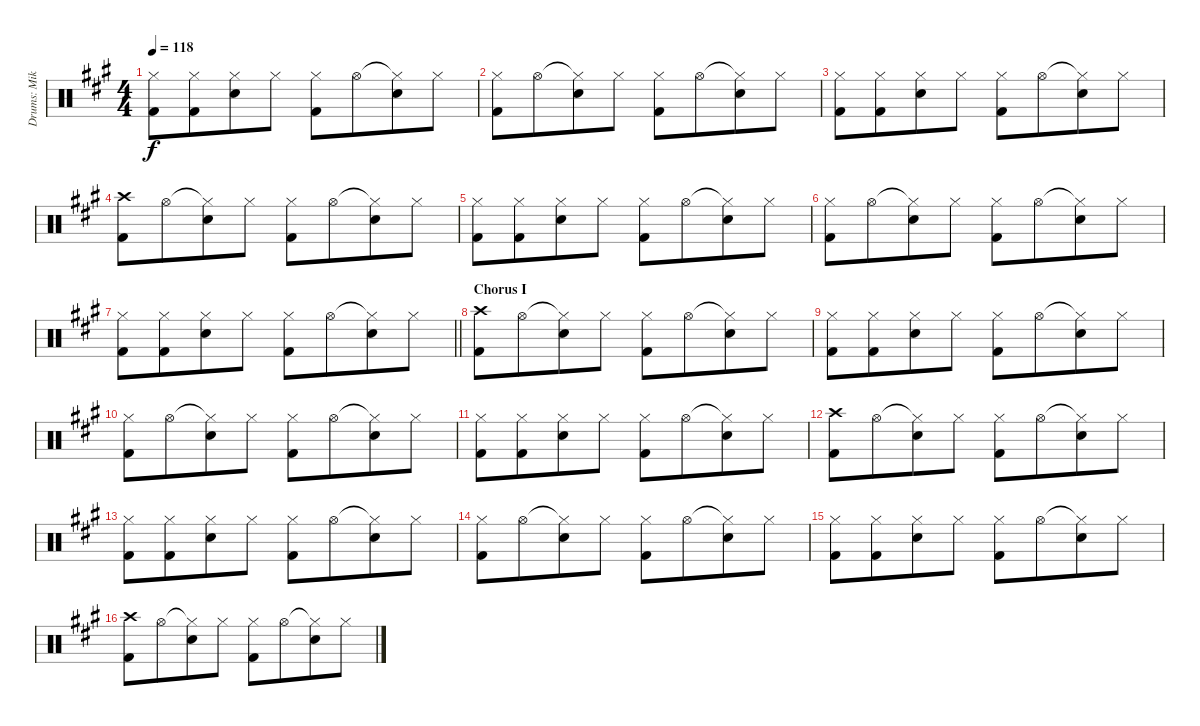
\track ("Drums: Mike" "Drums: Mik") {instrument percussion}
\staff {score}
\articulation defaults
\ts (4 4)
\tempo 118
\clef neutral
\ks a
("Hi-Hat (closed)" "Kick (hit) 2").8{dy f} ("Hi-Hat (closed)" "Kick (hit) 2").8{beam merge} ("Hi-Hat (closed)" "Electric Snare (hit)").8{beam merge} "Hi-Hat (closed)".8 ("Hi-Hat (closed)" "Kick (hit) 2").8 "Hi-Hat (open)".8{beam merge} ("Hi-Hat (closed)"{t} "Electric Snare (hit)").8{beam merge} "Hi-Hat (closed)".8 |
("Hi-Hat (closed)" "Kick (hit) 2").8 "Hi-Hat (open)".8{beam merge} ("Hi-Hat (closed)"{t} "Electric Snare (hit)").8{beam merge} "Hi-Hat (closed)".8 ("Hi-Hat (closed)" "Kick (hit) 2").8 "Hi-Hat (open)".8{beam merge} ("Hi-Hat (closed)"{t} "Electric Snare (hit)").8{beam merge} "Hi-Hat (closed)".8 |
("Hi-Hat (closed)" "Kick (hit) 2").8 ("Hi-Hat (closed)" "Kick (hit) 2").8{beam merge} ("Hi-Hat (closed)" "Electric Snare (hit)").8{beam merge} "Hi-Hat (closed)".8 ("Hi-Hat (closed)" "Kick (hit) 2").8 "Hi-Hat (open)".8{beam merge} ("Hi-Hat (closed)"{t} "Electric Snare (hit)").8{beam merge} "Hi-Hat (closed)".8 |
("Crash high (hit)" "Kick (hit) 2").8 "Hi-Hat (open)".8{beam merge} ("Hi-Hat (closed)"{t} "Electric Snare (hit)").8{beam merge} "Hi-Hat (closed)".8 ("Hi-Hat (closed)" "Kick (hit) 2").8 "Hi-Hat (open)".8{beam merge} ("Hi-Hat (closed)"{t} "Electric Snare (hit)").8{beam merge} "Hi-Hat (closed)".8 |
("Hi-Hat (closed)" "Kick (hit) 2").8 ("Hi-Hat (closed)" "Kick (hit) 2").8{beam merge} ("Hi-Hat (closed)" "Electric Snare (hit)").8{beam merge} "Hi-Hat (closed)".8 ("Hi-Hat (closed)" "Kick (hit) 2").8 "Hi-Hat (open)".8{beam merge} ("Hi-Hat (closed)"{t} "Electric Snare (hit)").8{beam merge} "Hi-Hat (closed)".8 |
("Hi-Hat (closed)" "Kick (hit) 2").8 "Hi-Hat (open)".8{beam merge} ("Hi-Hat (closed)"{t} "Electric Snare (hit)").8{beam merge} "Hi-Hat (closed)".8 ("Hi-Hat (closed)" "Kick (hit) 2").8 "Hi-Hat (open)".8{beam merge} ("Hi-Hat (closed)"{t} "Electric Snare (hit)").8{beam merge} "Hi-Hat (closed)".8 |
\barLineRight lightlight
("Hi-Hat (closed)" "Kick (hit) 2").8 ("Hi-Hat (closed)" "Kick (hit) 2").8{beam merge} ("Hi-Hat (closed)" "Electric Snare (hit)").8{beam merge} "Hi-Hat (closed)".8 ("Hi-Hat (closed)" "Kick (hit) 2").8 "Hi-Hat (open)".8{beam merge} ("Hi-Hat (closed)"{t} "Electric Snare (hit)").8{beam merge} "Hi-Hat (closed)".8 |
\section ("" "Chorus I")
("Crash high (hit)" "Kick (hit) 2").8 "Hi-Hat (open)".8{beam merge} ("Hi-Hat (closed)"{t} "Electric Snare (hit)").8{beam merge} "Hi-Hat (closed)".8 ("Hi-Hat (closed)" "Kick (hit) 2").8 "Hi-Hat (open)".8{beam merge} ("Hi-Hat (closed)"{t} "Electric Snare (hit)").8{beam merge} "Hi-Hat (closed)".8 |
("Hi-Hat (closed)" "Kick (hit) 2").8 ("Hi-Hat (closed)" "Kick (hit) 2").8{beam merge} ("Hi-Hat (closed)" "Electric Snare (hit)").8{beam merge} "Hi-Hat (closed)".8 ("Hi-Hat (closed)" "Kick (hit) 2").8 "Hi-Hat (open)".8{beam merge} ("Hi-Hat (closed)"{t} "Electric Snare (hit)").8{beam merge} "Hi-Hat (closed)".8 |
("Hi-Hat (closed)" "Kick (hit) 2").8 "Hi-Hat (open)".8{beam merge} ("Hi-Hat (closed)"{t} "Electric Snare (hit)").8{beam merge} "Hi-Hat (closed)".8 ("Hi-Hat (closed)" "Kick (hit) 2").8 "Hi-Hat (open)".8{beam merge} ("Hi-Hat (closed)"{t} "Electric Snare (hit)").8{beam merge} "Hi-Hat (closed)".8 |
("Hi-Hat (closed)" "Kick (hit) 2").8 ("Hi-Hat (closed)" "Kick (hit) 2").8{beam merge} ("Hi-Hat (closed)" "Electric Snare (hit)").8{beam merge} "Hi-Hat (closed)".8 ("Hi-Hat (closed)" "Kick (hit) 2").8 "Hi-Hat (open)".8{beam merge} ("Hi-Hat (closed)"{t} "Electric Snare (hit)").8{beam merge} "Hi-Hat (closed)".8 |
("Crash high (hit)" "Kick (hit) 2").8 "Hi-Hat (open)".8{beam merge} ("Hi-Hat (closed)"{t} "Electric Snare (hit)").8{beam merge} "Hi-Hat (closed)".8 ("Hi-Hat (closed)" "Kick (hit) 2").8 "Hi-Hat (open)".8{beam merge} ("Hi-Hat (closed)"{t} "Electric Snare (hit)").8{beam merge} "Hi-Hat (closed)".8 |
("Hi-Hat (closed)" "Kick (hit) 2").8 ("Hi-Hat (closed)" "Kick (hit) 2").8{beam merge} ("Hi-Hat (closed)" "Electric Snare (hit)").8{beam merge} "Hi-Hat (closed)".8 ("Hi-Hat (closed)" "Kick (hit) 2").8 "Hi-Hat (open)".8{beam merge} ("Hi-Hat (closed)"{t} "Electric Snare (hit)").8{beam merge} "Hi-Hat (closed)".8 |
("Hi-Hat (closed)" "Kick (hit) 2").8 "Hi-Hat (open)".8{beam merge} ("Hi-Hat (closed)"{t} "Electric Snare (hit)").8{beam merge} "Hi-Hat (closed)".8 ("Hi-Hat (closed)" "Kick (hit) 2").8 "Hi-Hat (open)".8{beam merge} ("Hi-Hat (closed)"{t} "Electric Snare (hit)").8{beam merge} "Hi-Hat (closed)".8 |
("Hi-Hat (closed)" "Kick (hit) 2").8 ("Hi-Hat (closed)" "Kick (hit) 2").8{beam merge} ("Hi-Hat (closed)" "Electric Snare (hit)").8{beam merge} "Hi-Hat (closed)".8 ("Hi-Hat (closed)" "Kick (hit) 2").8 "Hi-Hat (open)".8{beam merge} ("Hi-Hat (closed)"{t} "Electric Snare (hit)").8{beam merge} "Hi-Hat (closed)".8 |
("Crash high (hit)" "Kick (hit) 2").8 "Hi-Hat (open)".8{beam merge} ("Hi-Hat (closed)"{t} "Electric Snare (hit)").8{beam merge} "Hi-Hat (closed)".8 ("Hi-Hat (closed)" "Kick (hit) 2").8 "Hi-Hat (open)".8{beam merge} ("Hi-Hat (closed)"{t} "Electric Snare (hit)").8{beam merge} "Hi-Hat (closed)".8
